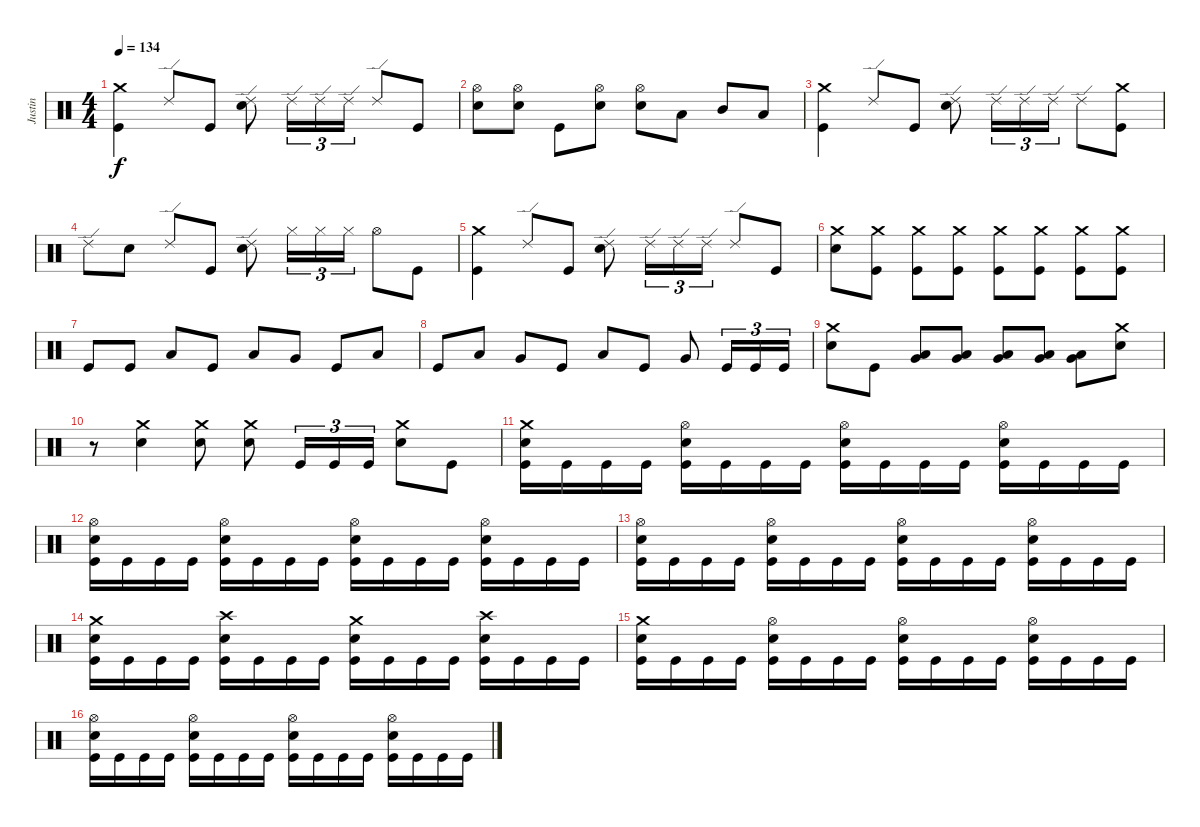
\track ("Justin" "Justin") {instrument percussion}
\staff {score}
\articulation defaults
\ts (4 4)
\tempo 134
\clef neutral
\ks c
("Crash medium (hit)" "Kick (hit)").4{dy f} "Ride (edge) 2".8 "Kick (hit)".8 ("Ride (edge) 2" "Electric Snare (hit)").8 "Ride (edge) 2".16{tu (3 2)} "Ride (edge) 2".16{tu (3 2)} "Ride (edge) 2".16{tu (3 2)} "Ride (edge) 2".8 "Kick (hit)".8 |
("Hi-Hat (open)" "Electric Snare (hit)").8 ("Hi-Hat (open)" "Electric Snare (hit)").8 "Kick (hit)".8 ("Hi-Hat (open)" "Electric Snare (hit)").8 ("Hi-Hat (open)" "Electric Snare (hit)").8 "Low Tom (hit)".8 "Mid Tom (hit)".8 "Low Floor Tom (hit)".8 |
("Crash medium (hit)" "Kick (hit)").4 "Ride (edge) 2".8 "Kick (hit)".8 ("Ride (edge) 2" "Electric Snare (hit)").8 "Ride (edge) 2".16{tu (3 2)} "Ride (edge) 2".16{tu (3 2)} "Ride (edge) 2".16{tu (3 2)} "Ride (edge) 2".8 ("Crash medium (hit)" "Kick (hit)").8 |
"Ride (edge) 2".8 "Electric Snare (hit)".8 "Ride (edge) 2".8 "Kick (hit)".8 ("Ride (edge) 2" "Electric Snare (hit)").8 "Hi-Hat (closed)".16{tu (3 2)} "Hi-Hat (closed)".16{tu (3 2)} "Hi-Hat (closed)".16{tu (3 2)} "Hi-Hat (open)".8 "Kick (hit)".8 |
("Crash medium (hit)" "Kick (hit)").4 "Ride (edge) 2".8 "Kick (hit)".8 ("Ride (edge) 2" "Electric Snare (hit)").8 "Ride (edge) 2".16{tu (3 2)} "Ride (edge) 2".16{tu (3 2)} "Ride (edge) 2".16{tu (3 2)} "Ride (edge) 2".8 "Kick (hit)".8 |
("Crash medium (hit)" "Electric Snare (hit)").8 ("Crash medium (hit)" "Kick (hit)").8 ("Crash medium (hit)" "Kick (hit)").8 ("Crash medium (hit)" "Kick (hit)").8 ("Crash medium (hit)" "Kick (hit)").8 ("Crash medium (hit)" "Kick (hit)").8 ("Crash medium (hit)" "Kick (hit)").8 ("Crash medium (hit)" "Kick (hit)").8 |
"Kick (hit)".8 "Kick (hit)".8 "Low Tom (hit)".8 "Kick (hit)".8 "Low Tom (hit)".8 "Very Low Tom (hit)".8 "Kick (hit)".8 "Low Tom (hit)".8 |
"Kick (hit)".8 "Low Tom (hit)".8 "Very Low Tom (hit)".8 "Kick (hit)".8 "Low Tom (hit)".8 "Kick (hit)".8 "Very Low Tom (hit)".8 "Kick (hit)".16{tu (3 2)} "Kick (hit)".16{tu (3 2)} "Kick (hit)".16{tu (3 2)} |
("Crash medium (hit)" "Electric Snare (hit)").8 "Kick (hit)".8 ("Low Tom (hit)" "Very Low Tom (hit)").8 ("Low Tom (hit)" "Very Low Tom (hit)").8 ("Low Tom (hit)" "Very Low Tom (hit)").8 ("Low Tom (hit)" "Very Low Tom (hit)").8 ("Low Tom (hit)" "Very Low Tom (hit)").8 ("Crash medium (hit)" "Electric Snare (hit)").8 |
r.8 ("Crash medium (hit)" "Electric Snare (hit)").4 ("Crash medium (hit)" "Electric Snare (hit)").8 ("Crash medium (hit)" "Electric Snare (hit)").8 "Kick (hit)".16{tu (3 2)} "Kick (hit)".16{tu (3 2)} "Kick (hit)".16{tu (3 2)} ("Crash medium (hit)" "Electric Snare (hit)").8 "Kick (hit)".8 |
("Crash medium (hit)" "Electric Snare (hit)" "Kick (hit)").16 "Kick (hit)".16 "Kick (hit)".16 "Kick (hit)".16 ("Hi-Hat (open)" "Electric Snare (hit)" "Kick (hit)").16 "Kick (hit)".16 "Kick (hit)".16 "Kick (hit)".16 ("Hi-Hat (open)" "Electric Snare (hit)" "Kick (hit)").16 "Kick (hit)".16 "Kick (hit)".16 "Kick (hit)".16 ("Hi-Hat (open)" "Electric Snare (hit)" "Kick (hit)").16 "Kick (hit)".16 "Kick (hit)".16 "Kick (hit)".16 |
("Hi-Hat (open)" "Electric Snare (hit)" "Kick (hit)").16 "Kick (hit)".16 "Kick (hit)".16 "Kick (hit)".16 ("Hi-Hat (open)" "Electric Snare (hit)" "Kick (hit)").16 "Kick (hit)".16 "Kick (hit)".16 "Kick (hit)".16 ("Hi-Hat (open)" "Electric Snare (hit)" "Kick (hit)").16 "Kick (hit)".16 "Kick (hit)".16 "Kick (hit)".16 ("Hi-Hat (open)" "Electric Snare (hit)" "Kick (hit)").16 "Kick (hit)".16 "Kick (hit)".16 "Kick (hit)".16 |
("Hi-Hat (open)" "Electric Snare (hit)" "Kick (hit)").16 "Kick (hit)".16 "Kick (hit)".16 "Kick (hit)".16 ("Hi-Hat (open)" "Electric Snare (hit)" "Kick (hit)").16 "Kick (hit)".16 "Kick (hit)".16 "Kick (hit)".16 ("Hi-Hat (open)" "Electric Snare (hit)" "Kick (hit)").16 "Kick (hit)".16 "Kick (hit)".16 "Kick (hit)".16 ("Hi-Hat (open)" "Electric Snare (hit)" "Kick (hit)").16 "Kick (hit)".16 "Kick (hit)".16 "Kick (hit)".16 |
("Crash medium (hit)" "Electric Snare (hit)" "Kick (hit)").16 "Kick (hit)".16 "Kick (hit)".16 "Kick (hit)".16 ("Crash high (hit)" "Electric Snare (hit)" "Kick (hit)").16 "Kick (hit)".16 "Kick (hit)".16 "Kick (hit)".16 ("Crash medium (hit)" "Electric Snare (hit)" "Kick (hit)").16 "Kick (hit)".16 "Kick (hit)".16 "Kick (hit)".16 ("Crash high (hit)" "Electric Snare (hit)" "Kick (hit)").16 "Kick (hit)".16 "Kick (hit)".16 "Kick (hit)".16 |
("Crash medium (hit)" "Electric Snare (hit)" "Kick (hit)").16 "Kick (hit)".16 "Kick (hit)".16 "Kick (hit)".16 ("Hi-Hat (open)" "Electric Snare (hit)" "Kick (hit)").16 "Kick (hit)".16 "Kick (hit)".16 "Kick (hit)".16 ("Hi-Hat (open)" "Electric Snare (hit)" "Kick (hit)").16 "Kick (hit)".16 "Kick (hit)".16 "Kick (hit)".16 ("Hi-Hat (open)" "Electric Snare (hit)" "Kick (hit)").16 "Kick (hit)".16 "Kick (hit)".16 "Kick (hit)".16 |
("Hi-Hat (open)" "Electric Snare (hit)" "Kick (hit)").16 "Kick (hit)".16 "Kick (hit)".16 "Kick (hit)".16 ("Hi-Hat (open)" "Electric Snare (hit)" "Kick (hit)").16 "Kick (hit)".16 "Kick (hit)".16 "Kick (hit)".16 ("Hi-Hat (open)" "Electric Snare (hit)" "Kick (hit)").16 "Kick (hit)".16 "Kick (hit)".16 "Kick (hit)".16 ("Hi-Hat (open)" "Electric Snare (hit)" "Kick (hit)").16 "Kick (hit)".16 "Kick (hit)".16 "Kick (hit)".16
